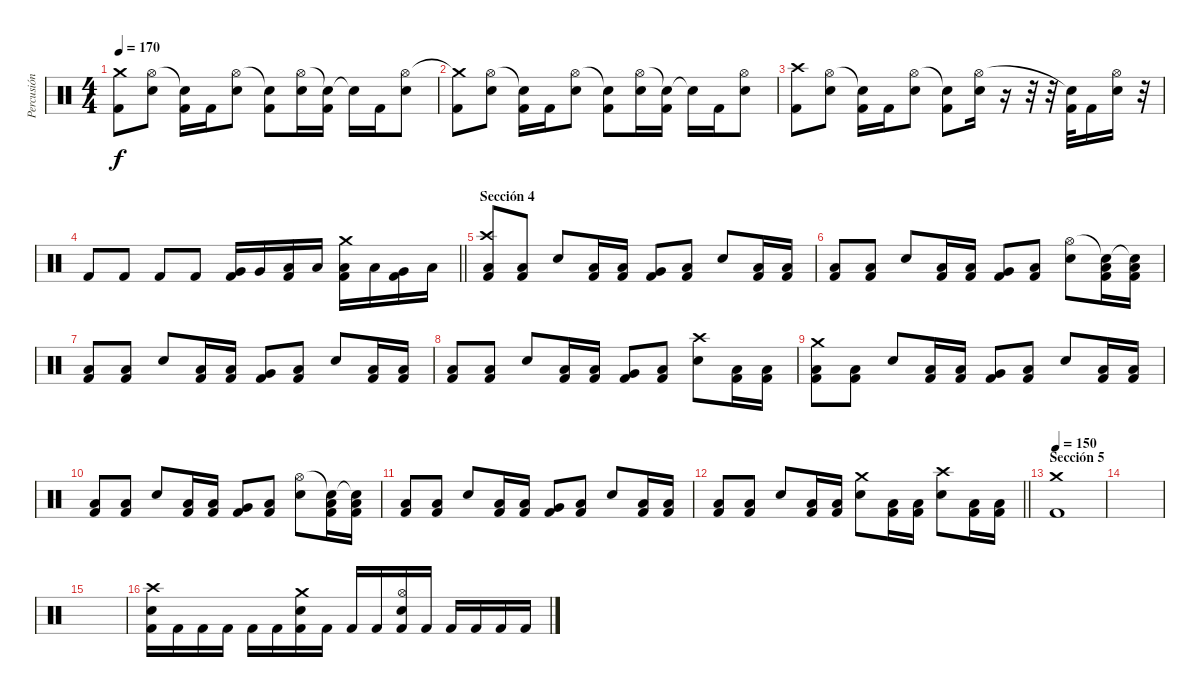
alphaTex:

\track ("Percusión" "Percusión") {instrument percussion}
\staff {score}
\articulation defaults
\ts (4 4)
\tempo 170
\clef neutral
\ks c
("Crash medium (hit)" "Kick (hit) 2").8{dy f} ("Hi-Hat (open)" "Electric Snare (hit)").8 ("Snare (hit)"{t} "Kick (hit) 2").16 "Kick (hit) 2".16 ("Hi-Hat (open)" "Electric Snare (hit)").8 ("Snare (hit)"{t} "Kick (hit) 2").8 ("Hi-Hat (open)" "Electric Snare (hit)").16 ("Snare (hit)"{t} "Kick (hit) 2").16 "Snare (hit)"{t}.16 "Kick (hit) 2".16 ("Hi-Hat (open)" "Electric Snare (hit)").8 |
("Crash medium (hit)"{t} "Kick (hit) 2").8 ("Hi-Hat (open)" "Electric Snare (hit)").8 ("Snare (hit)"{t} "Kick (hit) 2").16 "Kick (hit) 2".16 ("Hi-Hat (open)" "Electric Snare (hit)").8 ("Snare (hit)"{t} "Kick (hit) 2").8 ("Hi-Hat (open)" "Electric Snare (hit)").16 ("Snare (hit)"{t} "Kick (hit) 2").16 "Snare (hit)"{t}.16 "Kick (hit) 2".16 ("Hi-Hat (open)" "Electric Snare (hit)").8 |
("Crash high (hit)" "Kick (hit) 2").8 ("Hi-Hat (open)" "Electric Snare (hit)").8 ("Snare (hit)"{t} "Kick (hit) 2").16 "Kick (hit) 2".16 ("Hi-Hat (open)" "Electric Snare (hit)").8 ("Snare (hit)"{t} "Kick (hit) 2").8 ("Hi-Hat (open)" "Electric Snare (hit)").16 r.16 r.32 r.32 ("Snare (hit)"{t} "Kick (hit) 2").32 "Kick (hit) 2".16 ("Hi-Hat (open)" "Electric Snare (hit)").16 r.32 |
\barLineRight lightlight "Kick (hit) 2".8 "Kick (hit) 2".8 "Kick (hit) 2".8 "Kick (hit) 2".8
("Very Low Tom (hit)" "Kick (hit) 2").16 "Very Low Tom (hit)".16 ("Low Floor Tom (hit)" "Kick (hit) 2").16 "Low Floor Tom (hit)".16 ("Crash medium (hit)" "Low Tom (hit)" "Kick (hit) 2").16 "Low Tom (hit)".16 ("Very Low Tom (hit)" "Kick (hit) 2").16 "Low Floor Tom (hit)".16 |
\section ("" "Sección 4")
("Crash high (hit)" "Low Tom (hit)" "Kick (hit) 2").8 ("Low Tom (hit)" "Kick (hit) 2").8 "Electric Snare (hit)".8 ("Low Tom (hit)" "Kick (hit) 2").16 ("Low Tom (hit)" "Kick (hit) 2").16 ("Very Low Tom (hit)" "Kick (hit) 2").8 ("Low Floor Tom (hit)" "Kick (hit) 2").8 "Electric Snare (hit)".8 ("Low Tom (hit)" "Kick (hit) 2").16 ("Low Tom (hit)" "Kick (hit) 2").16 |
("Low Tom (hit)" "Kick (hit) 2").8 ("Low Tom (hit)" "Kick (hit) 2").8 "Electric Snare (hit)".8 ("Low Tom (hit)" "Kick (hit) 2").16 ("Low Tom (hit)" "Kick (hit) 2").16 ("Very Low Tom (hit)" "Kick (hit) 2").8 ("Low Floor Tom (hit)" "Kick (hit) 2").8 ("Hi-Hat (open)" "Electric Snare (hit)").8 ("Snare (hit)"{t} "Low Tom (hit)" "Kick (hit) 2").16 ("Snare (hit)"{t} "Low Tom (hit)" "Kick (hit) 2").16 |
("Low Tom (hit)" "Kick (hit) 2").8 ("Low Tom (hit)" "Kick (hit) 2").8 "Electric Snare (hit)".8 ("Low Tom (hit)" "Kick (hit) 2").16 ("Low Tom (hit)" "Kick (hit) 2").16 ("Very Low Tom (hit)" "Kick (hit) 2").8 ("Low Floor Tom (hit)" "Kick (hit) 2").8 "Electric Snare (hit)".8 ("Low Tom (hit)" "Kick (hit) 2").16 ("Low Tom (hit)" "Kick (hit) 2").16 |
("Low Tom (hit)" "Kick (hit) 2").8 ("Low Tom (hit)" "Kick (hit) 2").8 "Electric Snare (hit)".8 ("Low Tom (hit)" "Kick (hit) 2").16 ("Low Tom (hit)" "Kick (hit) 2").16 ("Very Low Tom (hit)" "Kick (hit) 2").8 ("Low Floor Tom (hit)" "Kick (hit) 2").8 ("Crash high (hit)" "Electric Snare (hit)").8 ("Low Tom (hit)" "Kick (hit) 2").16 ("Low Tom (hit)" "Kick (hit) 2").16 |
("Crash medium (hit)" "Low Tom (hit)" "Kick (hit) 2").8 ("Low Tom (hit)" "Kick (hit) 2").8 "Electric Snare (hit)".8 ("Low Tom (hit)" "Kick (hit) 2").16 ("Low Tom (hit)" "Kick (hit) 2").16 ("Very Low Tom (hit)" "Kick (hit) 2").8 ("Low Floor Tom (hit)" "Kick (hit) 2").8 "Electric Snare (hit)".8 ("Low Tom (hit)" "Kick (hit) 2").16 ("Low Tom (hit)" "Kick (hit) 2").16 |
("Low Tom (hit)" "Kick (hit) 2").8 ("Low Tom (hit)" "Kick (hit) 2").8 "Electric Snare (hit)".8 ("Low Tom (hit)" "Kick (hit) 2").16 ("Low Tom (hit)" "Kick (hit) 2").16 ("Very Low Tom (hit)" "Kick (hit) 2").8 ("Low Floor Tom (hit)" "Kick (hit) 2").8 ("Hi-Hat (open)" "Electric Snare (hit)").8 ("Snare (hit)"{t} "Low Tom (hit)" "Kick (hit) 2").16 ("Snare (hit)"{t} "Low Tom (hit)" "Kick (hit) 2").16 |
("Low Tom (hit)" "Kick (hit) 2").8 ("Low Tom (hit)" "Kick (hit) 2").8 "Electric Snare (hit)".8 ("Low Tom (hit)" "Kick (hit) 2").16 ("Low Tom (hit)" "Kick (hit) 2").16 ("Very Low Tom (hit)" "Kick (hit) 2").8 ("Low Floor Tom (hit)" "Kick (hit) 2").8 "Electric Snare (hit)".8 ("Low Tom (hit)" "Kick (hit) 2").16 ("Low Tom (hit)" "Kick (hit) 2").16 |
\barLineRight lightlight
("Low Tom (hit)" "Kick (hit) 2").8 ("Low Tom (hit)" "Kick (hit) 2").8 "Electric Snare (hit)".8 ("Low Tom (hit)" "Kick (hit) 2").16 ("Low Tom (hit)" "Kick (hit) 2").16 ("Crash medium (hit)" "Electric Snare (hit)").8 ("Low Floor Tom (hit)" "Kick (hit) 2").16 ("Low Floor Tom (hit)" "Kick (hit) 2").16 ("Crash high (hit)" "Electric Snare (hit)").8 ("Low Tom (hit)" "Kick (hit) 2").16 ("Low Tom (hit)" "Kick (hit) 2").16 |
\section ("" "Sección 5")
\tempo 150
("Crash medium (hit)" "Kick (hit) 2").1 |
|
|
("Crash high (hit)" "Electric Snare (hit)" "Kick (hit) 2").16 "Kick (hit) 2".16 "Kick (hit) 2".16 "Kick (hit) 2".16 "Kick (hit) 2".16 "Kick (hit) 2".16 ("Crash medium (hit)" "Electric Snare (hit)" "Kick (hit) 2").16 "Kick (hit) 2".16 "Kick (hit) 2".16 "Kick (hit) 2".16 ("Hi-Hat (open)" "Electric Snare (hit)" "Kick (hit) 2").16 "Kick (hit) 2".16 "Kick (hit) 2".16 "Kick (hit) 2".16 "Kick (hit) 2".16 "Kick (hit) 2".16
